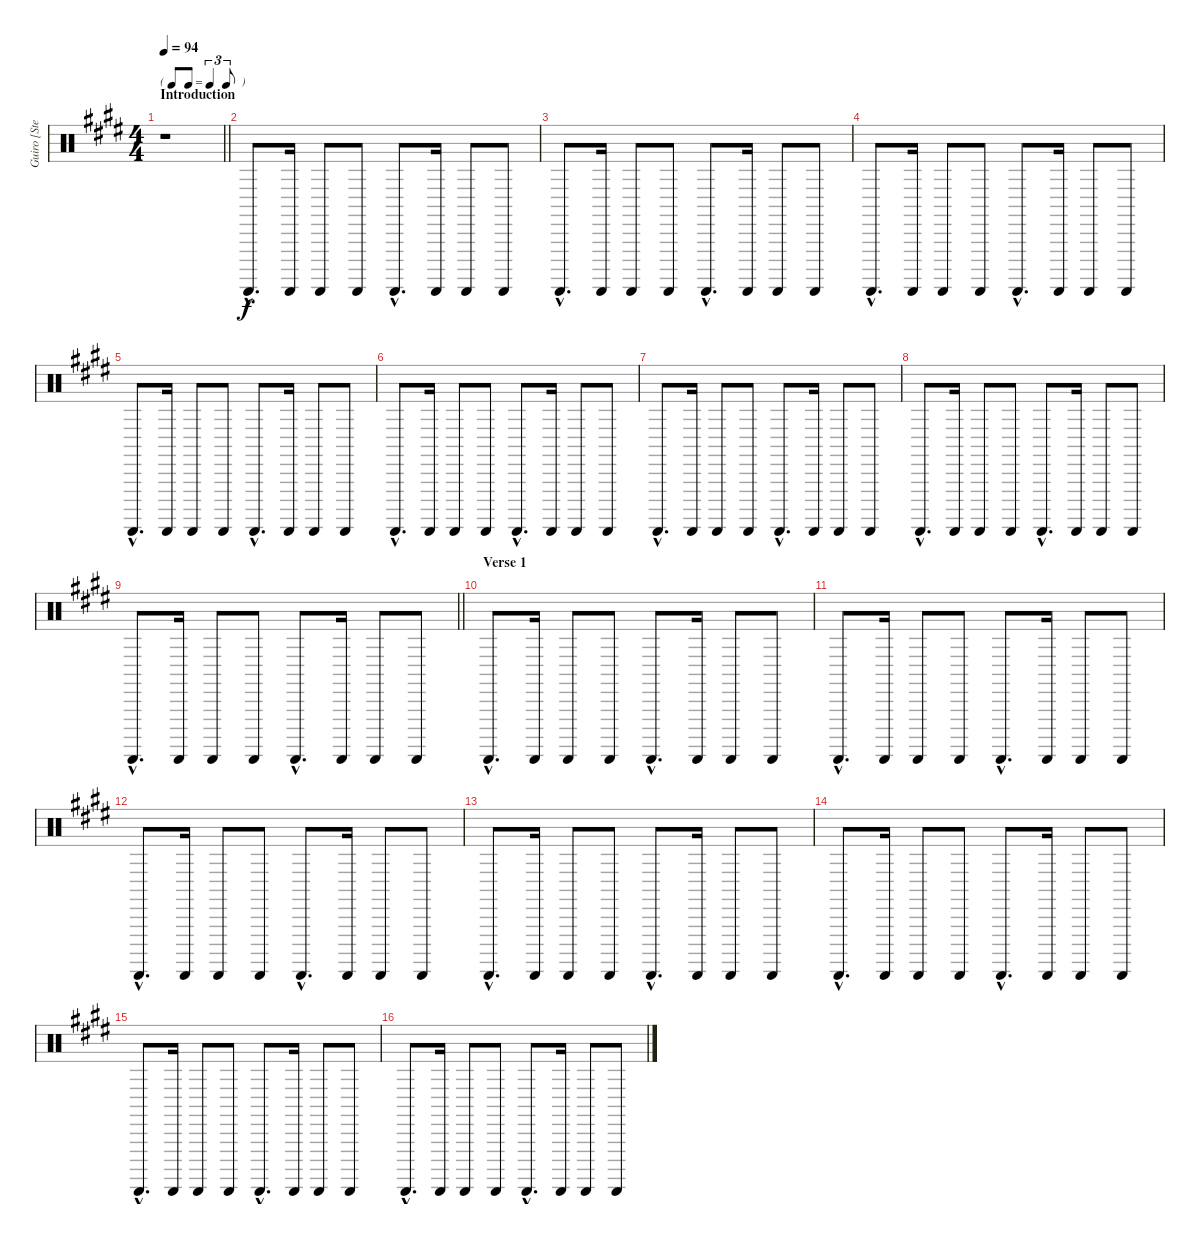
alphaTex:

\track ("Guiro [Steve Gadd]" "Guiro [Ste") {instrument percussion}
\staff {score}
\articulation defaults
\ts (4 4)
\tf triplet8th
\section ("" "Introduction")
\tempo 94
\clef neutral
\barLineRight lightlight
\ks e
r.1{dy f} |
"Guiro (scrap-return)"{hac}.8{d} "Guiro (scrap-return)".16 "Guiro (scrap-return)".8 "Guiro (scrap-return)".8 "Guiro (scrap-return)"{hac}.8{d} "Guiro (scrap-return)".16 "Guiro (scrap-return)".8 "Guiro (scrap-return)".8 |
"Guiro (scrap-return)"{hac}.8{d} "Guiro (scrap-return)".16 "Guiro (scrap-return)".8 "Guiro (scrap-return)".8 "Guiro (scrap-return)"{hac}.8{d} "Guiro (scrap-return)".16 "Guiro (scrap-return)".8 "Guiro (scrap-return)".8 |
"Guiro (scrap-return)"{hac}.8{d} "Guiro (scrap-return)".16 "Guiro (scrap-return)".8 "Guiro (scrap-return)".8 "Guiro (scrap-return)"{hac}.8{d} "Guiro (scrap-return)".16 "Guiro (scrap-return)".8 "Guiro (scrap-return)".8 |
"Guiro (scrap-return)"{hac}.8{d} "Guiro (scrap-return)".16 "Guiro (scrap-return)".8 "Guiro (scrap-return)".8 "Guiro (scrap-return)"{hac}.8{d} "Guiro (scrap-return)".16 "Guiro (scrap-return)".8 "Guiro (scrap-return)".8 |
"Guiro (scrap-return)"{hac}.8{d} "Guiro (scrap-return)".16 "Guiro (scrap-return)".8 "Guiro (scrap-return)".8 "Guiro (scrap-return)"{hac}.8{d} "Guiro (scrap-return)".16 "Guiro (scrap-return)".8 "Guiro (scrap-return)".8 |
"Guiro (scrap-return)"{hac}.8{d} "Guiro (scrap-return)".16 "Guiro (scrap-return)".8 "Guiro (scrap-return)".8 "Guiro (scrap-return)"{hac}.8{d} "Guiro (scrap-return)".16 "Guiro (scrap-return)".8 "Guiro (scrap-return)".8 |
"Guiro (scrap-return)"{hac}.8{d} "Guiro (scrap-return)".16 "Guiro (scrap-return)".8 "Guiro (scrap-return)".8 "Guiro (scrap-return)"{hac}.8{d} "Guiro (scrap-return)".16 "Guiro (scrap-return)".8 "Guiro (scrap-return)".8 |
\barLineRight lightlight "Guiro (scrap-return)"{hac}.8{d} "Guiro (scrap-return)".16 "Guiro (scrap-return)".8 "Guiro (scrap-return)".8 "Guiro (scrap-return)"{hac}.8{d} "Guiro (scrap-return)".16 "Guiro (scrap-return)".8 "Guiro (scrap-return)".8
|
\section ("" "Verse 1")
"Guiro (scrap-return)"{hac}.8{d} "Guiro (scrap-return)".16 "Guiro (scrap-return)".8 "Guiro (scrap-return)".8 "Guiro (scrap-return)"{hac}.8{d} "Guiro (scrap-return)".16 "Guiro (scrap-return)".8 "Guiro (scrap-return)".8 |
"Guiro (scrap-return)"{hac}.8{d} "Guiro (scrap-return)".16 "Guiro (scrap-return)".8 "Guiro (scrap-return)".8 "Guiro (scrap-return)"{hac}.8{d} "Guiro (scrap-return)".16 "Guiro (scrap-return)".8 "Guiro (scrap-return)".8 |
"Guiro (scrap-return)"{hac}.8{d} "Guiro (scrap-return)".16 "Guiro (scrap-return)".8 "Guiro (scrap-return)".8 "Guiro (scrap-return)"{hac}.8{d} "Guiro (scrap-return)".16 "Guiro (scrap-return)".8 "Guiro (scrap-return)".8 |
"Guiro (scrap-return)"{hac}.8{d} "Guiro (scrap-return)".16 "Guiro (scrap-return)".8 "Guiro (scrap-return)".8 "Guiro (scrap-return)"{hac}.8{d} "Guiro (scrap-return)".16 "Guiro (scrap-return)".8 "Guiro (scrap-return)".8 |
"Guiro (scrap-return)"{hac}.8{d} "Guiro (scrap-return)".16 "Guiro (scrap-return)".8 "Guiro (scrap-return)".8 "Guiro (scrap-return)"{hac}.8{d} "Guiro (scrap-return)".16 "Guiro (scrap-return)".8 "Guiro (scrap-return)".8 |
"Guiro (scrap-return)"{hac}.8{d} "Guiro (scrap-return)".16 "Guiro (scrap-return)".8 "Guiro (scrap-return)".8 "Guiro (scrap-return)"{hac}.8{d} "Guiro (scrap-return)".16 "Guiro (scrap-return)".8 "Guiro (scrap-return)".8 |
"Guiro (scrap-return)"{hac}.8{d} "Guiro (scrap-return)".16 "Guiro (scrap-return)".8 "Guiro (scrap-return)".8 "Guiro (scrap-return)"{hac}.8{d} "Guiro (scrap-return)".16 "Guiro (scrap-return)".8 "Guiro (scrap-return)".8
